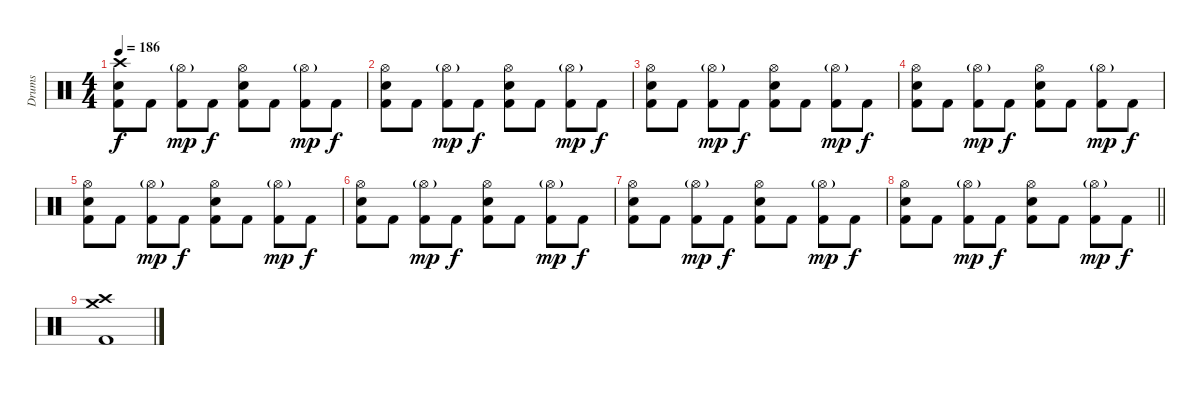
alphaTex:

\track ("Drums" "Drums") {instrument percussion}
\staff {score}
\articulation defaults
\ts (4 4)
\tempo 186
\clef neutral
\ks c
("Crash high (hit)" "Electric Snare (hit)" "Kick (hit) 2").8{dy f} "Kick (hit) 2".8 ("Hi-Hat (open)"{g} "Kick (hit) 2").8{dy mp} "Kick (hit) 2".8{dy f} ("Hi-Hat (open)" "Electric Snare (hit)" "Kick (hit) 2").8 "Kick (hit) 2".8 ("Hi-Hat (open)"{g} "Kick (hit) 2").8{dy mp} "Kick (hit) 2".8{dy f} |
("Hi-Hat (open)" "Electric Snare (hit)" "Kick (hit) 2").8 "Kick (hit) 2".8 ("Hi-Hat (open)"{g} "Kick (hit) 2").8{dy mp} "Kick (hit) 2".8{dy f} ("Hi-Hat (open)" "Electric Snare (hit)" "Kick (hit) 2").8 "Kick (hit) 2".8 ("Hi-Hat (open)"{g} "Kick (hit) 2").8{dy mp} "Kick (hit) 2".8{dy f} |
("Hi-Hat (open)" "Electric Snare (hit)" "Kick (hit) 2").8 "Kick (hit) 2".8 ("Hi-Hat (open)"{g} "Kick (hit) 2").8{dy mp} "Kick (hit) 2".8{dy f} ("Hi-Hat (open)" "Electric Snare (hit)" "Kick (hit) 2").8 "Kick (hit) 2".8 ("Hi-Hat (open)"{g} "Kick (hit) 2").8{dy mp} "Kick (hit) 2".8{dy f} |
("Hi-Hat (open)" "Electric Snare (hit)" "Kick (hit) 2").8 "Kick (hit) 2".8 ("Hi-Hat (open)"{g} "Kick (hit) 2").8{dy mp} "Kick (hit) 2".8{dy f} ("Hi-Hat (open)" "Electric Snare (hit)" "Kick (hit) 2").8 "Kick (hit) 2".8 ("Hi-Hat (open)"{g} "Kick (hit) 2").8{dy mp} "Kick (hit) 2".8{dy f} |
("Hi-Hat (open)" "Electric Snare (hit)" "Kick (hit) 2").8 "Kick (hit) 2".8 ("Hi-Hat (open)"{g} "Kick (hit) 2").8{dy mp} "Kick (hit) 2".8{dy f} ("Hi-Hat (open)" "Electric Snare (hit)" "Kick (hit) 2").8 "Kick (hit) 2".8 ("Hi-Hat (open)"{g} "Kick (hit) 2").8{dy mp} "Kick (hit) 2".8{dy f} |
("Hi-Hat (open)" "Electric Snare (hit)" "Kick (hit) 2").8 "Kick (hit) 2".8 ("Hi-Hat (open)"{g} "Kick (hit) 2").8{dy mp} "Kick (hit) 2".8{dy f} ("Hi-Hat (open)" "Electric Snare (hit)" "Kick (hit) 2").8 "Kick (hit) 2".8 ("Hi-Hat (open)"{g} "Kick (hit) 2").8{dy mp} "Kick (hit) 2".8{dy f} |
("Hi-Hat (open)" "Electric Snare (hit)" "Kick (hit) 2").8 "Kick (hit) 2".8 ("Hi-Hat (open)"{g} "Kick (hit) 2").8{dy mp} "Kick (hit) 2".8{dy f} ("Hi-Hat (open)" "Electric Snare (hit)" "Kick (hit) 2").8 "Kick (hit) 2".8 ("Hi-Hat (open)"{g} "Kick (hit) 2").8{dy mp} "Kick (hit) 2".8{dy f} |
\barLineRight lightlight
("Hi-Hat (open)" "Electric Snare (hit)" "Kick (hit) 2").8 "Kick (hit) 2".8 ("Hi-Hat (open)"{g} "Kick (hit) 2").8{dy mp} "Kick (hit) 2".8{dy f} ("Hi-Hat (open)" "Electric Snare (hit)" "Kick (hit) 2").8 "Kick (hit) 2".8 ("Hi-Hat (open)"{g} "Kick (hit) 2").8{dy mp} "Kick (hit) 2".8{dy f} |
\section ("" "")
("Crash medium (hit)" "Crash high (hit)" "Kick (hit) 2").1
